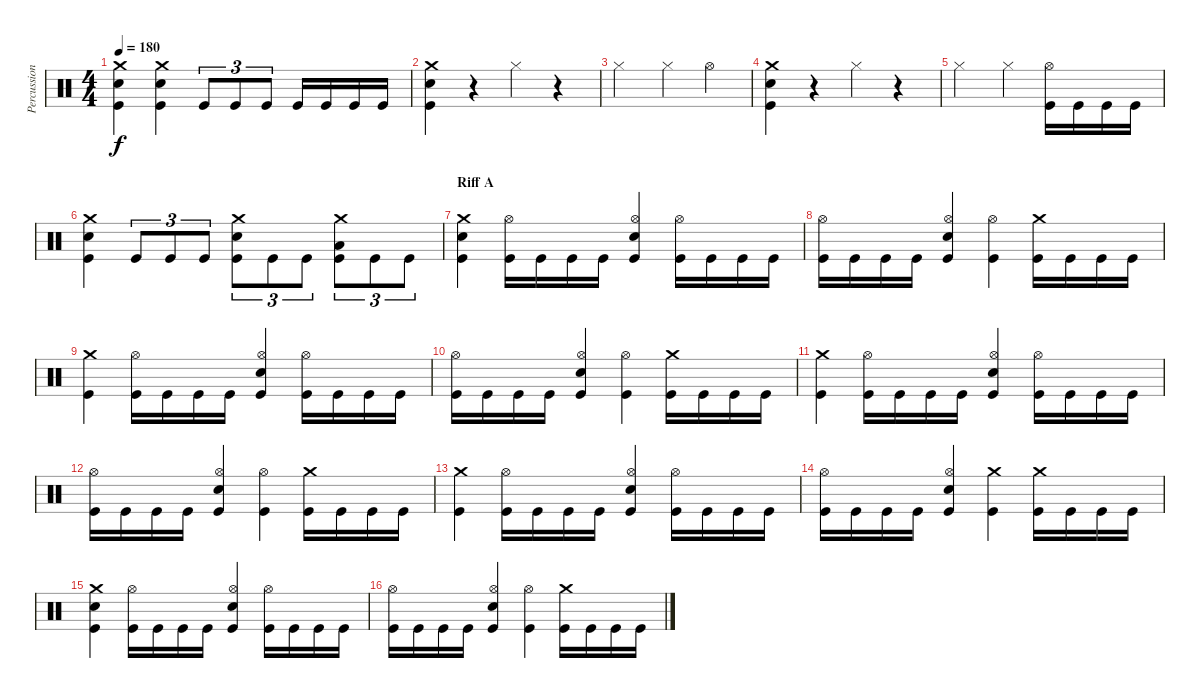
\track ("Percussion" "Percussion") {instrument percussion}
\staff {score}
\articulation defaults
\ts (4 4)
\tempo 180
\clef neutral
\ks c
("Crash medium (hit)" "Electric Snare (hit)" "Kick (hit)").4{dy f} ("Crash medium (hit)" "Electric Snare (hit)" "Kick (hit)").4 "Kick (hit)".8{tu (3 2)} "Kick (hit)".8{tu (3 2)} "Kick (hit)".8{tu (3 2)} "Kick (hit)".16 "Kick (hit)".16 "Kick (hit)".16 "Kick (hit)".16 |
("Crash medium (hit)" "Electric Snare (hit)" "Kick (hit)").4 r.4 "Hi-Hat (closed)".4 r.4 |
"Hi-Hat (closed)".2 "Hi-Hat (closed)".4 "Hi-Hat (open)".4 |
("Crash medium (hit)" "Electric Snare (hit)" "Kick (hit)").4 r.4 "Hi-Hat (closed)".4 r.4 |
"Hi-Hat (closed)".2 "Hi-Hat (closed)".4 ("Hi-Hat (open)" "Kick (hit)").16 "Kick (hit)".16 "Kick (hit)".16 "Kick (hit)".16 |
("Crash medium (hit)" "Electric Snare (hit)" "Kick (hit)").4 "Kick (hit)".8{tu (3 2)} "Kick (hit)".8{tu (3 2)} "Kick (hit)".8{tu (3 2)} ("Crash medium (hit)" "Electric Snare (hit)" "Kick (hit)").8{tu (3 2)} "Kick (hit)".8{tu (3 2)} "Kick (hit)".8{tu (3 2)} ("Crash medium (hit)" "Low Tom (hit)" "Kick (hit)").8{tu (3 2)} "Kick (hit)".8{tu (3 2)} "Kick (hit)".8{tu (3 2)} |
\section ("" "Riff A")
("Crash medium (hit)" "Snare (hit) 2" "Kick (hit)").4 ("Hi-Hat (open)" "Kick (hit)").16 "Kick (hit)".16 "Kick (hit)".16 "Kick (hit)".16 ("Hi-Hat (open)" "Snare (hit) 2" "Kick (hit)").4 ("Hi-Hat (open)" "Kick (hit)").16 "Kick (hit)".16 "Kick (hit)".16 "Kick (hit)".16 |
("Hi-Hat (open)" "Kick (hit)").16 "Kick (hit)".16 "Kick (hit)".16 "Kick (hit)".16 ("Hi-Hat (open)" "Snare (hit) 2" "Kick (hit)").4 ("Hi-Hat (open)" "Kick (hit)").4 ("Crash medium (hit)" "Kick (hit)").16 "Kick (hit)".16 "Kick (hit)".16 "Kick (hit)".16 |
("Crash medium (hit)" "Kick (hit)").4 ("Hi-Hat (open)" "Kick (hit)").16 "Kick (hit)".16 "Kick (hit)".16 "Kick (hit)".16 ("Hi-Hat (open)" "Snare (hit) 2" "Kick (hit)").4 ("Hi-Hat (open)" "Kick (hit)").16 "Kick (hit)".16 "Kick (hit)".16 "Kick (hit)".16 |
("Hi-Hat (open)" "Kick (hit)").16 "Kick (hit)".16 "Kick (hit)".16 "Kick (hit)".16 ("Hi-Hat (open)" "Snare (hit) 2" "Kick (hit)").4 ("Hi-Hat (open)" "Kick (hit)").4 ("Crash medium (hit)" "Kick (hit)").16 "Kick (hit)".16 "Kick (hit)".16 "Kick (hit)".16 |
("Crash medium (hit)" "Kick (hit)").4 ("Hi-Hat (open)" "Kick (hit)").16 "Kick (hit)".16 "Kick (hit)".16 "Kick (hit)".16 ("Hi-Hat (open)" "Snare (hit) 2" "Kick (hit)").4 ("Hi-Hat (open)" "Kick (hit)").16 "Kick (hit)".16 "Kick (hit)".16 "Kick (hit)".16 |
("Hi-Hat (open)" "Kick (hit)").16 "Kick (hit)".16 "Kick (hit)".16 "Kick (hit)".16 ("Hi-Hat (open)" "Snare (hit) 2" "Kick (hit)").4 ("Hi-Hat (open)" "Kick (hit)").4 ("Crash medium (hit)" "Kick (hit)").16 "Kick (hit)".16 "Kick (hit)".16 "Kick (hit)".16 |
("Crash medium (hit)" "Kick (hit)").4 ("Hi-Hat (open)" "Kick (hit)").16 "Kick (hit)".16 "Kick (hit)".16 "Kick (hit)".16 ("Hi-Hat (open)" "Snare (hit) 2" "Kick (hit)").4 ("Hi-Hat (open)" "Kick (hit)").16 "Kick (hit)".16 "Kick (hit)".16 "Kick (hit)".16 |
("Hi-Hat (open)" "Kick (hit)").16 "Kick (hit)".16 "Kick (hit)".16 "Kick (hit)".16 ("Hi-Hat (open)" "Snare (hit) 2" "Kick (hit)").4 ("Crash medium (hit)" "Kick (hit)").4 ("Crash medium (hit)" "Kick (hit)").16 "Kick (hit)".16 "Kick (hit)".16 "Kick (hit)".16 |
("Crash medium (hit)" "Snare (hit) 2" "Kick (hit)").4 ("Hi-Hat (open)" "Kick (hit)").16 "Kick (hit)".16 "Kick (hit)".16 "Kick (hit)".16 ("Hi-Hat (open)" "Snare (hit) 2" "Kick (hit)").4 ("Hi-Hat (open)" "Kick (hit)").16 "Kick (hit)".16 "Kick (hit)".16 "Kick (hit)".16 |
("Hi-Hat (open)" "Kick (hit)").16 "Kick (hit)".16 "Kick (hit)".16 "Kick (hit)".16 ("Hi-Hat (open)" "Snare (hit) 2" "Kick (hit)").4 ("Hi-Hat (open)" "Kick (hit)").4 ("Crash medium (hit)" "Kick (hit)").16 "Kick (hit)".16 "Kick (hit)".16 "Kick (hit)".16
